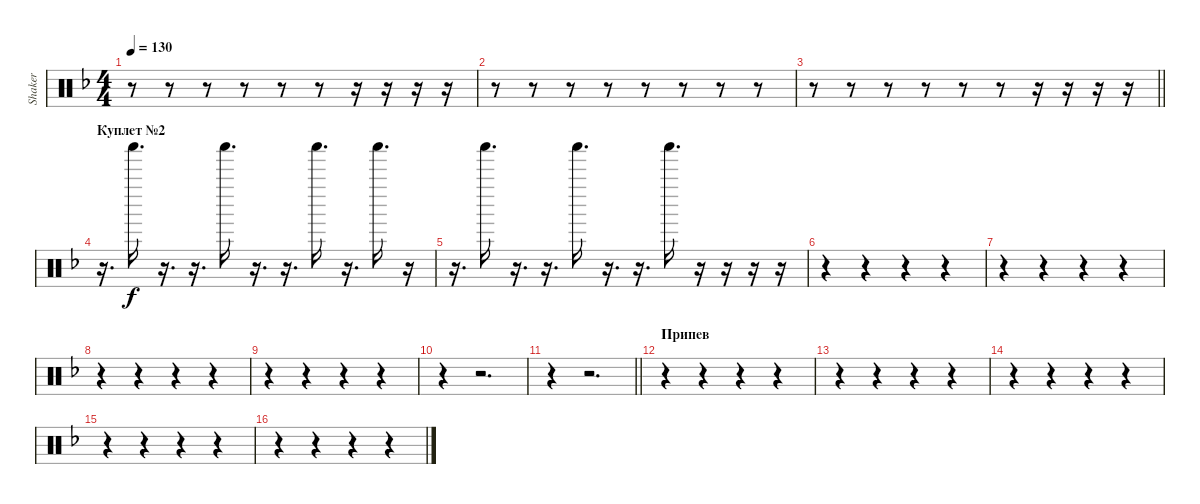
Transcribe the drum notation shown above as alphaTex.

\track ("Shaker" "Shaker") {instrument percussion}
\staff {score}
\articulation defaults
\ts (4 4)
\tempo 130
\clef neutral
\ks f
r.8{dy f} r.8 r.8 r.8 r.8 r.8 r.16 r.16 r.16 r.16 |
r.8 r.8 r.8 r.8 r.8 r.8 r.8 r.8 |
\barLineRight lightlight
r.8 r.8 r.8 r.8 r.8 r.8 r.16 r.16 r.16 r.16 |
\section ("" "Куплет №2")
r.16{d} "Shaker (hit)".16{d} r.16{d} r.16{d} "Shaker (hit)".16{d} r.16{d} r.16{d} "Shaker (hit)".16{d} r.16{d} "Shaker (hit)".16{d} r.16 |
r.16{d} "Shaker (hit)".16{d} r.16{d} r.16{d} "Shaker (hit)".16{d} r.16{d} r.16{d} "Shaker (hit)".16{d} r.16 r.16 r.16 r.16 |
r.4 r.4 r.4 r.4 |
r.4 r.4 r.4 r.4 |
r.4 r.4 r.4 r.4 |
r.4 r.4 r.4 r.4 |
r.4 r.2{d} |
\barLineRight lightlight
r.4 r.2{d} |
\section ("" "Припев")
r.4 r.4 r.4 r.4 |
r.4 r.4 r.4 r.4 |
r.4 r.4 r.4 r.4 |
r.4 r.4 r.4 r.4 |
r.4 r.4 r.4 r.4
